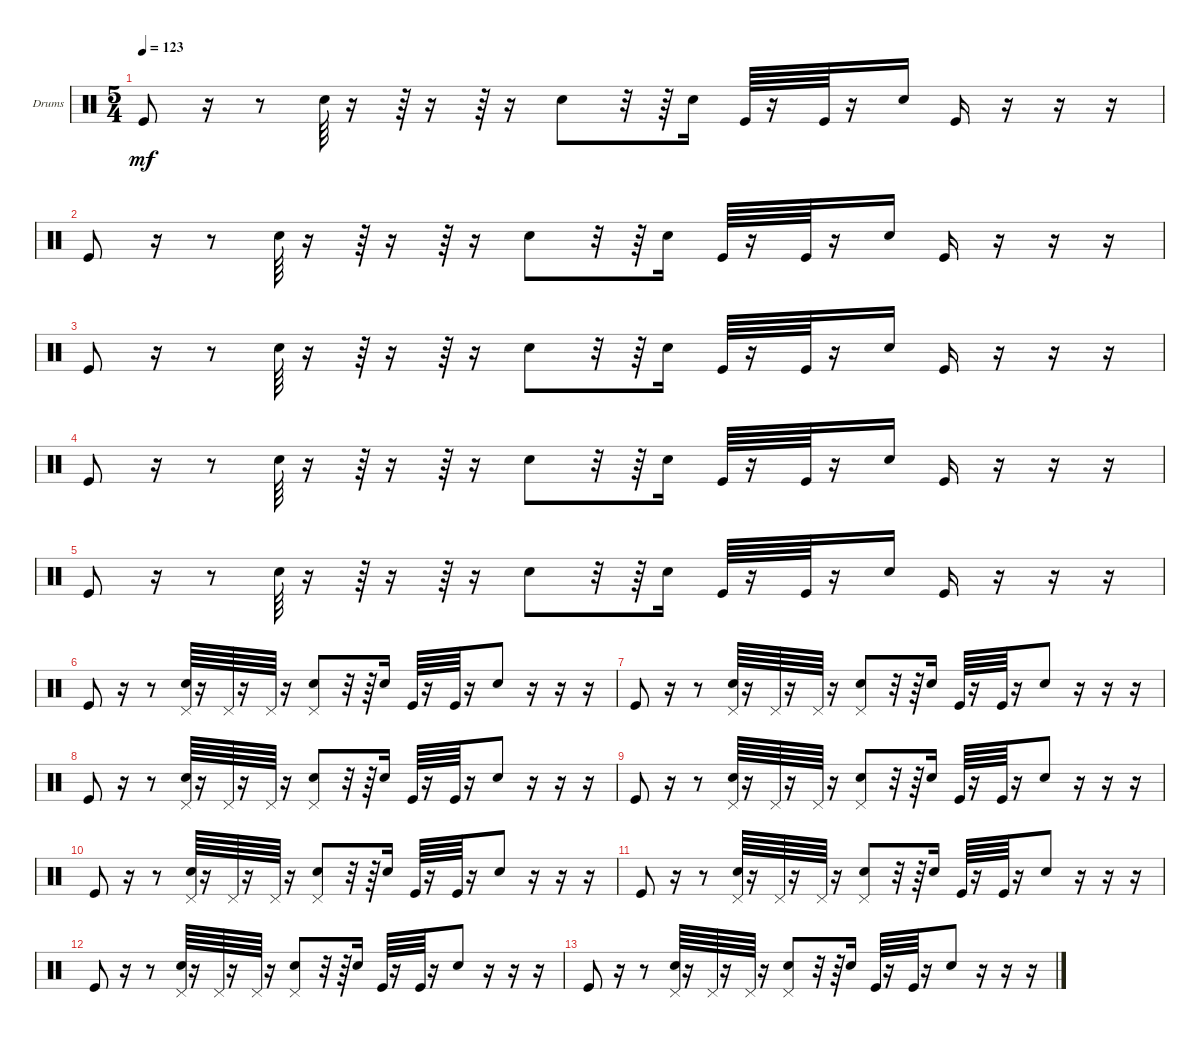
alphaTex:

\defaultSystemsLayout 4
\bracketExtendMode groupsimilarinstruments
\firstSystemTrackNameOrientation horizontal
\otherSystemsTrackNameOrientation horizontal
\track ("Drumkit" "Drums") {instrument percussion}
\staff {score}
\articulation defaults
\ts (5 4)
\tempo 123
\clef neutral
\ks c "Kick (hit)".8{dy mf}
r.16 r.8 "Snare (hit) 2".64 r.16 r.64 r.16 r.64 r.16 "Snare (hit) 2".8 r.32 r.64 "Snare (hit) 2".16 "Kick (hit)".64 r.16 "Kick (hit)".64 r.16 "Snare (hit) 2".16 "Kick (hit)".16 r.16 r.16 r.16 |
"Kick (hit)".8 r.16 r.8 "Snare (hit) 2".64 r.16 r.64 r.16 r.64 r.16 "Snare (hit) 2".8 r.32 r.64 "Snare (hit) 2".16 "Kick (hit)".64 r.16 "Kick (hit)".64 r.16 "Snare (hit) 2".16 "Kick (hit)".16 r.16 r.16 r.16 |
"Kick (hit)".8 r.16 r.8 "Snare (hit) 2".64 r.16 r.64 r.16 r.64 r.16 "Snare (hit) 2".8 r.32 r.64 "Snare (hit) 2".16 "Kick (hit)".64 r.16 "Kick (hit)".64 r.16 "Snare (hit) 2".16 "Kick (hit)".16 r.16 r.16 r.16 |
"Kick (hit)".8 r.16 r.8 "Snare (hit) 2".64 r.16 r.64 r.16 r.64 r.16 "Snare (hit) 2".8 r.32 r.64 "Snare (hit) 2".16 "Kick (hit)".64 r.16 "Kick (hit)".64 r.16 "Snare (hit) 2".16 "Kick (hit)".16 r.16 r.16 r.16 |
"Kick (hit)".8 r.16 r.8 "Snare (hit) 2".64 r.16 r.64 r.16 r.64 r.16 "Snare (hit) 2".8 r.32 r.64 "Snare (hit) 2".16 "Kick (hit)".64 r.16 "Kick (hit)".64 r.16 "Snare (hit) 2".16 "Kick (hit)".16 r.16 r.16 r.16 |
"Kick (hit)".8 r.16 r.8 ("Snare (hit) 2" "Pedal Hi-Hat (hit)").64 r.16 "Pedal Hi-Hat (hit)".64 r.16 "Pedal Hi-Hat (hit)".64 r.16 ("Snare (hit) 2" "Pedal Hi-Hat (hit)").8 r.32 r.64 "Snare (hit) 2".16 "Kick (hit)".64 r.16 "Kick (hit)".64 r.16 "Snare (hit) 2".8 r.16 r.16 r.16 |
"Kick (hit)".8 r.16 r.8 ("Snare (hit) 2" "Pedal Hi-Hat (hit)").64 r.16 "Pedal Hi-Hat (hit)".64 r.16 "Pedal Hi-Hat (hit)".64 r.16 ("Snare (hit) 2" "Pedal Hi-Hat (hit)").8 r.32 r.64 "Snare (hit) 2".16 "Kick (hit)".64 r.16 "Kick (hit)".64 r.16 "Snare (hit) 2".8 r.16 r.16 r.16 |
"Kick (hit)".8 r.16 r.8 ("Snare (hit) 2" "Pedal Hi-Hat (hit)").64 r.16 "Pedal Hi-Hat (hit)".64 r.16 "Pedal Hi-Hat (hit)".64 r.16 ("Snare (hit) 2" "Pedal Hi-Hat (hit)").8 r.32 r.64 "Snare (hit) 2".16 "Kick (hit)".64 r.16 "Kick (hit)".64 r.16 "Snare (hit) 2".8 r.16 r.16 r.16 |
"Kick (hit)".8 r.16 r.8 ("Snare (hit) 2" "Pedal Hi-Hat (hit)").64 r.16 "Pedal Hi-Hat (hit)".64 r.16 "Pedal Hi-Hat (hit)".64 r.16 ("Snare (hit) 2" "Pedal Hi-Hat (hit)").8 r.32 r.64 "Snare (hit) 2".16 "Kick (hit)".64 r.16 "Kick (hit)".64 r.16 "Snare (hit) 2".8 r.16 r.16 r.16 |
"Kick (hit)".8 r.16 r.8 ("Snare (hit) 2" "Pedal Hi-Hat (hit)").64 r.16 "Pedal Hi-Hat (hit)".64 r.16 "Pedal Hi-Hat (hit)".64 r.16 ("Snare (hit) 2" "Pedal Hi-Hat (hit)").8 r.32 r.64 "Snare (hit) 2".16 "Kick (hit)".64 r.16 "Kick (hit)".64 r.16 "Snare (hit) 2".8 r.16 r.16 r.16 |
"Kick (hit)".8 r.16 r.8 ("Snare (hit) 2" "Pedal Hi-Hat (hit)").64 r.16 "Pedal Hi-Hat (hit)".64 r.16 "Pedal Hi-Hat (hit)".64 r.16 ("Snare (hit) 2" "Pedal Hi-Hat (hit)").8 r.32 r.64 "Snare (hit) 2".16 "Kick (hit)".64 r.16 "Kick (hit)".64 r.16 "Snare (hit) 2".8 r.16 r.16 r.16 |
"Kick (hit)".8 r.16 r.8 ("Snare (hit) 2" "Pedal Hi-Hat (hit)").64 r.16 "Pedal Hi-Hat (hit)".64 r.16 "Pedal Hi-Hat (hit)".64 r.16 ("Snare (hit) 2" "Pedal Hi-Hat (hit)").8 r.32 r.64 "Snare (hit) 2".16 "Kick (hit)".64 r.16 "Kick (hit)".64 r.16 "Snare (hit) 2".8 r.16 r.16 r.16 |
"Kick (hit)".8 r.16 r.8 ("Snare (hit) 2" "Pedal Hi-Hat (hit)").64 r.16 "Pedal Hi-Hat (hit)".64 r.16 "Pedal Hi-Hat (hit)".64 r.16 ("Snare (hit) 2" "Pedal Hi-Hat (hit)").8 r.32 r.64 "Snare (hit) 2".16 "Kick (hit)".64 r.16 "Kick (hit)".64 r.16 "Snare (hit) 2".8 r.16 r.16 r.16
